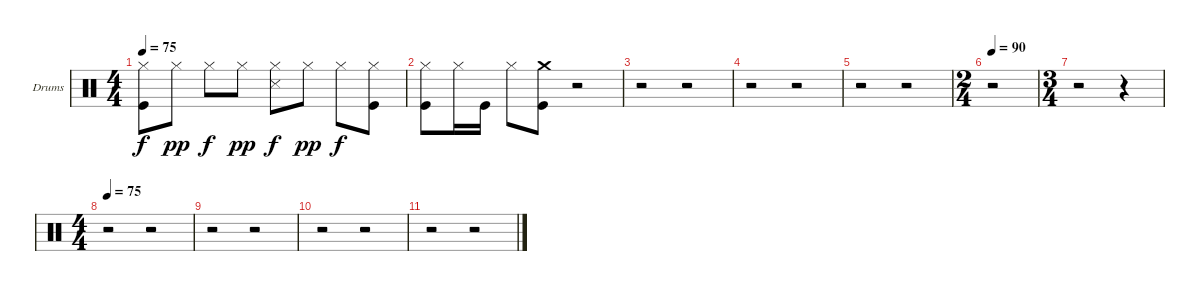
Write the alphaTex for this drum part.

\bracketExtendMode groupsimilarinstruments
\firstSystemTrackNameOrientation horizontal
\otherSystemsTrackNameOrientation horizontal
\track ("Drumkit" "Drums") {instrument percussion}
\staff {score}
\articulation defaults
\ts (4 4)
\tempo 75
\clef neutral
\ks c
("Kick (hit)" "Hi-Hat (closed)").8{dy f} "Hi-Hat (closed)".8{dy pp} "Hi-Hat (closed)".8{dy f} "Hi-Hat (closed)".8{dy pp} ("Snare (side stick) 3" "Hi-Hat (closed)").8{dy f} "Hi-Hat (closed)".8{dy pp} "Hi-Hat (closed)".8{dy f} ("Kick (hit)" "Hi-Hat (closed)").8 |
("Kick (hit)" "Hi-Hat (closed)").8 "Hi-Hat (closed)".16 "Kick (hit)".16 "Hi-Hat (closed)".8 ("Kick (hit)" "Crash medium (hit)").8 r.2 |
r.2 r.2 |
r.2 r.2 |
r.2 r.2 |
\ts (2 4)
\beaming (8 2 2 2 2)
\tempo 90
r.2 |
\ts (3 4)
\beaming (8 2 2 2 2)
r.2 r.4 |
\ts (4 4)
\beaming (8 2 2 2 2)
\tempo 75
r.2 r.2 |
r.2 r.2 |
r.2 r.2 |
r.2 r.2
